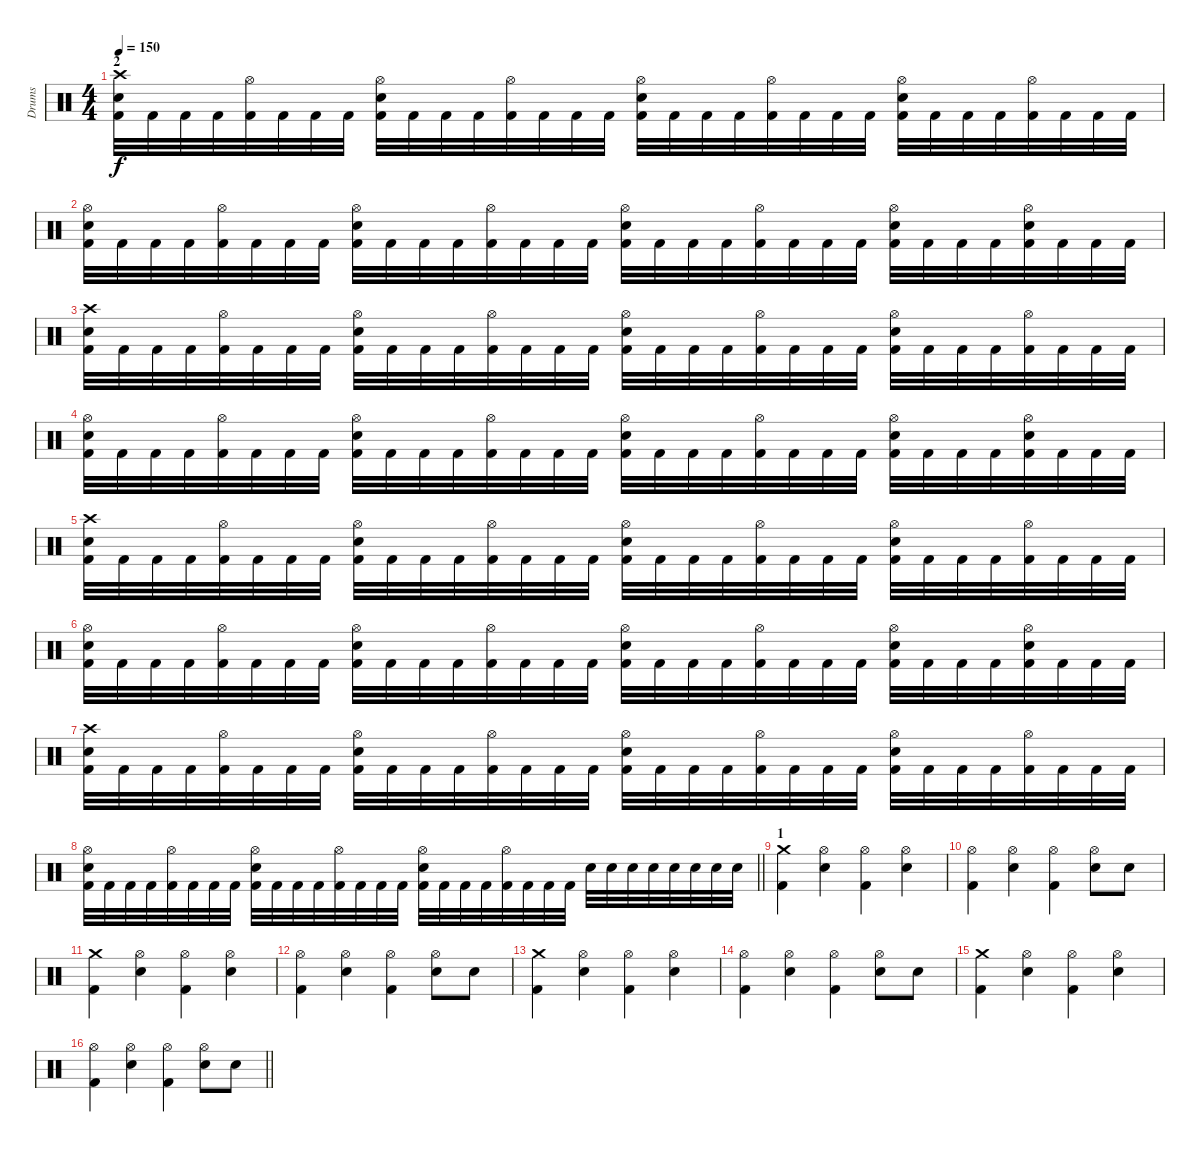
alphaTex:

\track ("Drums" "Drums") {instrument percussion}
\staff {score}
\articulation defaults
\ts (4 4)
\section ("" "2")
\tempo 150
\clef neutral
\ks c
("Crash high (hit)" "Snare (hit) 2" "Kick (hit) 2").32{dy f} "Kick (hit) 2".32 "Kick (hit) 2".32 "Kick (hit) 2".32 ("Hi-Hat (open)" "Kick (hit) 2").32 "Kick (hit) 2".32 "Kick (hit) 2".32 "Kick (hit) 2".32 ("Hi-Hat (open)" "Snare (hit) 2" "Kick (hit) 2").32 "Kick (hit) 2".32 "Kick (hit) 2".32 "Kick (hit) 2".32 ("Hi-Hat (open)" "Kick (hit) 2").32 "Kick (hit) 2".32 "Kick (hit) 2".32 "Kick (hit) 2".32 ("Hi-Hat (open)" "Snare (hit) 2" "Kick (hit) 2").32 "Kick (hit) 2".32 "Kick (hit) 2".32 "Kick (hit) 2".32 ("Hi-Hat (open)" "Kick (hit) 2").32 "Kick (hit) 2".32 "Kick (hit) 2".32 "Kick (hit) 2".32 ("Hi-Hat (open)" "Snare (hit) 2" "Kick (hit) 2").32 "Kick (hit) 2".32 "Kick (hit) 2".32 "Kick (hit) 2".32 ("Hi-Hat (open)" "Kick (hit) 2").32 "Kick (hit) 2".32 "Kick (hit) 2".32 "Kick (hit) 2".32 |
("Hi-Hat (open)" "Snare (hit) 2" "Kick (hit) 2").32 "Kick (hit) 2".32 "Kick (hit) 2".32 "Kick (hit) 2".32 ("Hi-Hat (open)" "Kick (hit) 2").32 "Kick (hit) 2".32 "Kick (hit) 2".32 "Kick (hit) 2".32 ("Hi-Hat (open)" "Snare (hit) 2" "Kick (hit) 2").32 "Kick (hit) 2".32 "Kick (hit) 2".32 "Kick (hit) 2".32 ("Hi-Hat (open)" "Kick (hit) 2").32 "Kick (hit) 2".32 "Kick (hit) 2".32 "Kick (hit) 2".32 ("Hi-Hat (open)" "Snare (hit) 2" "Kick (hit) 2").32 "Kick (hit) 2".32 "Kick (hit) 2".32 "Kick (hit) 2".32 ("Hi-Hat (open)" "Kick (hit) 2").32 "Kick (hit) 2".32 "Kick (hit) 2".32 "Kick (hit) 2".32 ("Hi-Hat (open)" "Snare (hit) 2" "Kick (hit) 2").32 "Kick (hit) 2".32 "Kick (hit) 2".32 "Kick (hit) 2".32 ("Hi-Hat (open)" "Snare (hit) 2" "Kick (hit) 2").32 "Kick (hit) 2".32 "Kick (hit) 2".32 "Kick (hit) 2".32 |
("Crash high (hit)" "Snare (hit) 2" "Kick (hit) 2").32 "Kick (hit) 2".32 "Kick (hit) 2".32 "Kick (hit) 2".32 ("Hi-Hat (open)" "Kick (hit) 2").32 "Kick (hit) 2".32 "Kick (hit) 2".32 "Kick (hit) 2".32 ("Hi-Hat (open)" "Snare (hit) 2" "Kick (hit) 2").32 "Kick (hit) 2".32 "Kick (hit) 2".32 "Kick (hit) 2".32 ("Hi-Hat (open)" "Kick (hit) 2").32 "Kick (hit) 2".32 "Kick (hit) 2".32 "Kick (hit) 2".32 ("Hi-Hat (open)" "Snare (hit) 2" "Kick (hit) 2").32 "Kick (hit) 2".32 "Kick (hit) 2".32 "Kick (hit) 2".32 ("Hi-Hat (open)" "Kick (hit) 2").32 "Kick (hit) 2".32 "Kick (hit) 2".32 "Kick (hit) 2".32 ("Hi-Hat (open)" "Snare (hit) 2" "Kick (hit) 2").32 "Kick (hit) 2".32 "Kick (hit) 2".32 "Kick (hit) 2".32 ("Hi-Hat (open)" "Kick (hit) 2").32 "Kick (hit) 2".32 "Kick (hit) 2".32 "Kick (hit) 2".32 |
("Hi-Hat (open)" "Snare (hit) 2" "Kick (hit) 2").32 "Kick (hit) 2".32 "Kick (hit) 2".32 "Kick (hit) 2".32 ("Hi-Hat (open)" "Kick (hit) 2").32 "Kick (hit) 2".32 "Kick (hit) 2".32 "Kick (hit) 2".32 ("Hi-Hat (open)" "Snare (hit) 2" "Kick (hit) 2").32 "Kick (hit) 2".32 "Kick (hit) 2".32 "Kick (hit) 2".32 ("Hi-Hat (open)" "Kick (hit) 2").32 "Kick (hit) 2".32 "Kick (hit) 2".32 "Kick (hit) 2".32 ("Hi-Hat (open)" "Snare (hit) 2" "Kick (hit) 2").32 "Kick (hit) 2".32 "Kick (hit) 2".32 "Kick (hit) 2".32 ("Hi-Hat (open)" "Kick (hit) 2").32 "Kick (hit) 2".32 "Kick (hit) 2".32 "Kick (hit) 2".32 ("Hi-Hat (open)" "Snare (hit) 2" "Kick (hit) 2").32 "Kick (hit) 2".32 "Kick (hit) 2".32 "Kick (hit) 2".32 ("Hi-Hat (open)" "Snare (hit) 2" "Kick (hit) 2").32 "Kick (hit) 2".32 "Kick (hit) 2".32 "Kick (hit) 2".32 |
("Crash high (hit)" "Snare (hit) 2" "Kick (hit) 2").32 "Kick (hit) 2".32 "Kick (hit) 2".32 "Kick (hit) 2".32 ("Hi-Hat (open)" "Kick (hit) 2").32 "Kick (hit) 2".32 "Kick (hit) 2".32 "Kick (hit) 2".32 ("Hi-Hat (open)" "Snare (hit) 2" "Kick (hit) 2").32 "Kick (hit) 2".32 "Kick (hit) 2".32 "Kick (hit) 2".32 ("Hi-Hat (open)" "Kick (hit) 2").32 "Kick (hit) 2".32 "Kick (hit) 2".32 "Kick (hit) 2".32 ("Hi-Hat (open)" "Snare (hit) 2" "Kick (hit) 2").32 "Kick (hit) 2".32 "Kick (hit) 2".32 "Kick (hit) 2".32 ("Hi-Hat (open)" "Kick (hit) 2").32 "Kick (hit) 2".32 "Kick (hit) 2".32 "Kick (hit) 2".32 ("Hi-Hat (open)" "Snare (hit) 2" "Kick (hit) 2").32 "Kick (hit) 2".32 "Kick (hit) 2".32 "Kick (hit) 2".32 ("Hi-Hat (open)" "Kick (hit) 2").32 "Kick (hit) 2".32 "Kick (hit) 2".32 "Kick (hit) 2".32 |
("Hi-Hat (open)" "Snare (hit) 2" "Kick (hit) 2").32 "Kick (hit) 2".32 "Kick (hit) 2".32 "Kick (hit) 2".32 ("Hi-Hat (open)" "Kick (hit) 2").32 "Kick (hit) 2".32 "Kick (hit) 2".32 "Kick (hit) 2".32 ("Hi-Hat (open)" "Snare (hit) 2" "Kick (hit) 2").32 "Kick (hit) 2".32 "Kick (hit) 2".32 "Kick (hit) 2".32 ("Hi-Hat (open)" "Kick (hit) 2").32 "Kick (hit) 2".32 "Kick (hit) 2".32 "Kick (hit) 2".32 ("Hi-Hat (open)" "Snare (hit) 2" "Kick (hit) 2").32 "Kick (hit) 2".32 "Kick (hit) 2".32 "Kick (hit) 2".32 ("Hi-Hat (open)" "Kick (hit) 2").32 "Kick (hit) 2".32 "Kick (hit) 2".32 "Kick (hit) 2".32 ("Hi-Hat (open)" "Snare (hit) 2" "Kick (hit) 2").32 "Kick (hit) 2".32 "Kick (hit) 2".32 "Kick (hit) 2".32 ("Hi-Hat (open)" "Snare (hit) 2" "Kick (hit) 2").32 "Kick (hit) 2".32 "Kick (hit) 2".32 "Kick (hit) 2".32 |
("Crash high (hit)" "Snare (hit) 2" "Kick (hit) 2").32 "Kick (hit) 2".32 "Kick (hit) 2".32 "Kick (hit) 2".32 ("Hi-Hat (open)" "Kick (hit) 2").32 "Kick (hit) 2".32 "Kick (hit) 2".32 "Kick (hit) 2".32 ("Hi-Hat (open)" "Snare (hit) 2" "Kick (hit) 2").32 "Kick (hit) 2".32 "Kick (hit) 2".32 "Kick (hit) 2".32 ("Hi-Hat (open)" "Kick (hit) 2").32 "Kick (hit) 2".32 "Kick (hit) 2".32 "Kick (hit) 2".32 ("Hi-Hat (open)" "Snare (hit) 2" "Kick (hit) 2").32 "Kick (hit) 2".32 "Kick (hit) 2".32 "Kick (hit) 2".32 ("Hi-Hat (open)" "Kick (hit) 2").32 "Kick (hit) 2".32 "Kick (hit) 2".32 "Kick (hit) 2".32 ("Hi-Hat (open)" "Snare (hit) 2" "Kick (hit) 2").32 "Kick (hit) 2".32 "Kick (hit) 2".32 "Kick (hit) 2".32 ("Hi-Hat (open)" "Kick (hit) 2").32 "Kick (hit) 2".32 "Kick (hit) 2".32 "Kick (hit) 2".32 |
\barLineRight lightlight
("Hi-Hat (open)" "Snare (hit) 2" "Kick (hit) 2").32 "Kick (hit) 2".32 "Kick (hit) 2".32 "Kick (hit) 2".32 ("Hi-Hat (open)" "Kick (hit) 2").32 "Kick (hit) 2".32 "Kick (hit) 2".32 "Kick (hit) 2".32 ("Hi-Hat (open)" "Snare (hit) 2" "Kick (hit) 2").32 "Kick (hit) 2".32 "Kick (hit) 2".32 "Kick (hit) 2".32 ("Hi-Hat (open)" "Kick (hit) 2").32 "Kick (hit) 2".32 "Kick (hit) 2".32 "Kick (hit) 2".32 ("Hi-Hat (open)" "Snare (hit) 2" "Kick (hit) 2").32 "Kick (hit) 2".32 "Kick (hit) 2".32 "Kick (hit) 2".32 ("Hi-Hat (open)" "Kick (hit) 2").32 "Kick (hit) 2".32 "Kick (hit) 2".32 "Kick (hit) 2".32 "Snare (hit) 2".32 "Snare (hit) 2".32 "Snare (hit) 2".32 "Snare (hit) 2".32 "Snare (hit) 2".32 "Snare (hit) 2".32 "Snare (hit) 2".32 "Snare (hit) 2".32 |
\section ("" "1")
("Crash medium (hit)" "Kick (hit) 2").4 ("Hi-Hat (open)" "Snare (hit) 2").4 ("Hi-Hat (open)" "Kick (hit) 2").4 ("Hi-Hat (open)" "Snare (hit) 2").4 |
("Hi-Hat (open)" "Kick (hit) 2").4 ("Hi-Hat (open)" "Snare (hit) 2").4 ("Hi-Hat (open)" "Kick (hit) 2").4 ("Hi-Hat (open)" "Snare (hit) 2").8 "Snare (hit) 2".8 |
("Crash medium (hit)" "Kick (hit) 2").4 ("Hi-Hat (open)" "Snare (hit) 2").4 ("Hi-Hat (open)" "Kick (hit) 2").4 ("Hi-Hat (open)" "Snare (hit) 2").4 |
("Hi-Hat (open)" "Kick (hit) 2").4 ("Hi-Hat (open)" "Snare (hit) 2").4 ("Hi-Hat (open)" "Kick (hit) 2").4 ("Hi-Hat (open)" "Snare (hit) 2").8 "Snare (hit) 2".8 |
("Crash medium (hit)" "Kick (hit) 2").4 ("Hi-Hat (open)" "Snare (hit) 2").4 ("Hi-Hat (open)" "Kick (hit) 2").4 ("Hi-Hat (open)" "Snare (hit) 2").4 |
("Hi-Hat (open)" "Kick (hit) 2").4 ("Hi-Hat (open)" "Snare (hit) 2").4 ("Hi-Hat (open)" "Kick (hit) 2").4 ("Hi-Hat (open)" "Snare (hit) 2").8 "Snare (hit) 2".8 |
("Crash medium (hit)" "Kick (hit) 2").4 ("Hi-Hat (open)" "Snare (hit) 2").4 ("Hi-Hat (open)" "Kick (hit) 2").4 ("Hi-Hat (open)" "Snare (hit) 2").4 |
\barLineRight lightlight
("Hi-Hat (open)" "Kick (hit) 2").4 ("Hi-Hat (open)" "Snare (hit) 2").4 ("Hi-Hat (open)" "Kick (hit) 2").4 ("Hi-Hat (open)" "Snare (hit) 2").8 "Snare (hit) 2".8
